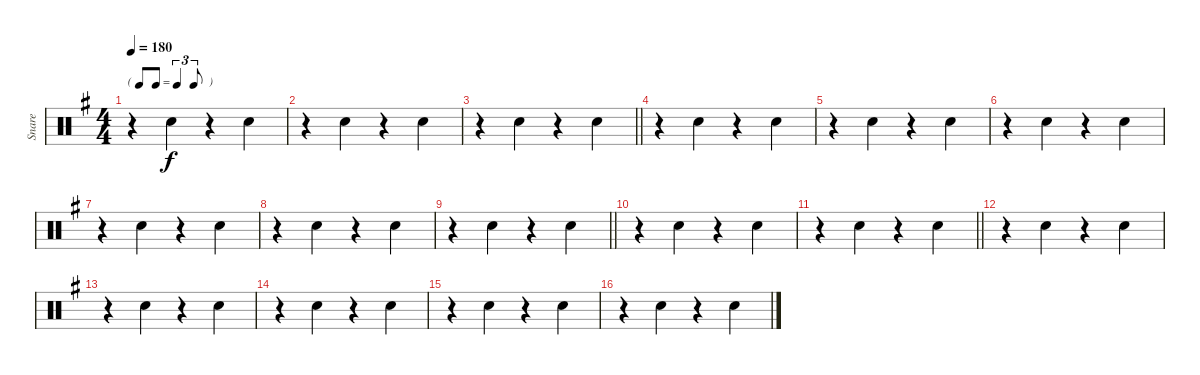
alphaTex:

\track ("Snare" "Snare") {instrument percussion}
\staff {score}
\articulation defaults
\ts (4 4)
\tf triplet8th
\tempo 180
\clef neutral
\ks eminor
r.4{dy f} "Snare (hit) 2".4 r.4 "Snare (hit) 2".4 |
r.4 "Snare (hit) 2".4 r.4 "Snare (hit) 2".4 |
\barLineRight lightlight
r.4 "Snare (hit) 2".4 r.4 "Snare (hit) 2".4 |
r.4 "Snare (hit) 2".4 r.4 "Snare (hit) 2".4 |
r.4 "Snare (hit) 2".4 r.4 "Snare (hit) 2".4 |
r.4 "Snare (hit) 2".4 r.4 "Snare (hit) 2".4 |
r.4 "Snare (hit) 2".4 r.4 "Snare (hit) 2".4 |
r.4 "Snare (hit) 2".4 r.4 "Snare (hit) 2".4 |
\barLineRight lightlight
r.4 "Snare (hit) 2".4 r.4 "Snare (hit) 2".4 |
r.4 "Snare (hit) 2".4 r.4 "Snare (hit) 2".4 |
\barLineRight lightlight
r.4 "Snare (hit) 2".4 r.4 "Snare (hit) 2".4 |
r.4 "Snare (hit) 2".4 r.4 "Snare (hit) 2".4 |
r.4 "Snare (hit) 2".4 r.4 "Snare (hit) 2".4 |
r.4 "Snare (hit) 2".4 r.4 "Snare (hit) 2".4 |
r.4 "Snare (hit) 2".4 r.4 "Snare (hit) 2".4 |
r.4 "Snare (hit) 2".4 r.4 "Snare (hit) 2".4
